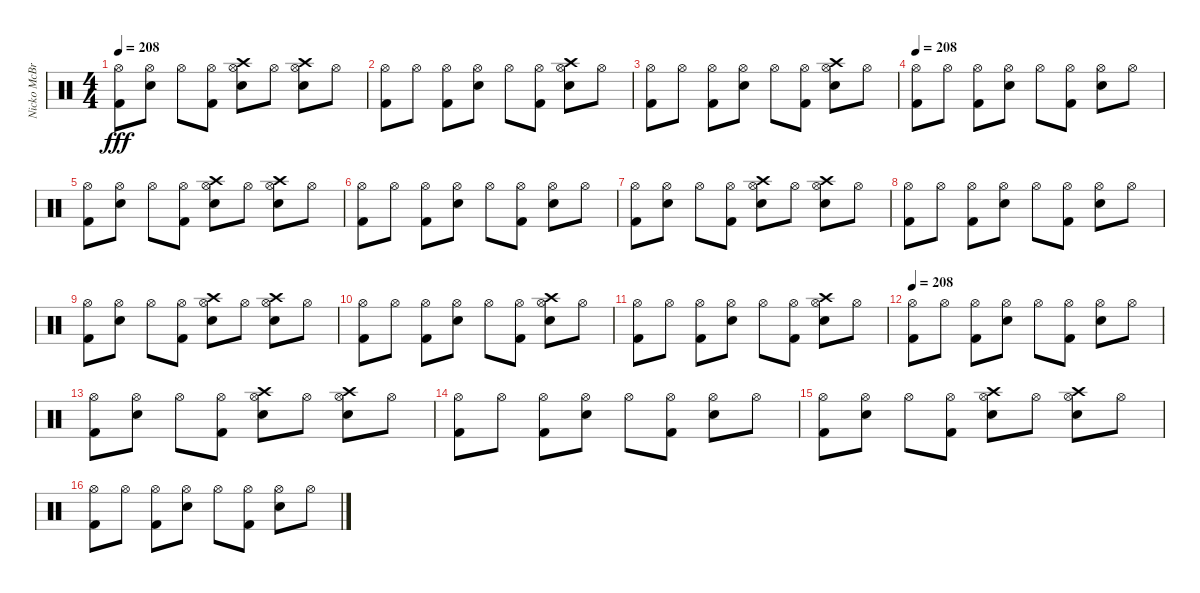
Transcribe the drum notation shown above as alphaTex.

\track ("Nicko McBrain" "Nicko McBr") {instrument percussion}
\staff {score}
\articulation defaults
\ts (4 4)
\tempo 208
\clef neutral
\ks c
("Hi-Hat (open)" "Kick (hit) 2").8{dy fff} ("Hi-Hat (open)" "Snare (hit) 2").8 "Hi-Hat (open)".8 ("Hi-Hat (open)" "Kick (hit) 2").8 ("Hi-Hat (open)" "Snare (hit) 2" "Crash high (hit)").8 "Hi-Hat (open)".8 ("Hi-Hat (open)" "Snare (hit) 2" "Crash high (hit)").8 "Hi-Hat (open)".8 |
("Hi-Hat (open)" "Kick (hit) 2").8 "Hi-Hat (open)".8 ("Hi-Hat (open)" "Kick (hit) 2").8 ("Hi-Hat (open)" "Snare (hit) 2").8 "Hi-Hat (open)".8 ("Hi-Hat (open)" "Kick (hit) 2").8 ("Hi-Hat (open)" "Snare (hit) 2" "Crash high (hit)").8 "Hi-Hat (open)".8 |
("Hi-Hat (open)" "Kick (hit) 2").8 "Hi-Hat (open)".8 ("Hi-Hat (open)" "Kick (hit) 2").8 ("Hi-Hat (open)" "Snare (hit) 2").8 "Hi-Hat (open)".8 ("Hi-Hat (open)" "Kick (hit) 2").8 ("Hi-Hat (open)" "Snare (hit) 2" "Crash high (hit)").8 "Hi-Hat (open)".8 |
\tempo 208
("Hi-Hat (open)" "Kick (hit) 2").8 "Hi-Hat (open)".8 ("Hi-Hat (open)" "Kick (hit) 2").8 ("Hi-Hat (open)" "Snare (hit) 2").8 "Hi-Hat (open)".8 ("Hi-Hat (open)" "Kick (hit) 2").8 ("Hi-Hat (open)" "Snare (hit) 2").8 "Hi-Hat (open)".8 |
("Hi-Hat (open)" "Kick (hit) 2").8 ("Hi-Hat (open)" "Snare (hit) 2").8 "Hi-Hat (open)".8 ("Hi-Hat (open)" "Kick (hit) 2").8 ("Hi-Hat (open)" "Snare (hit) 2" "Crash high (hit)").8 "Hi-Hat (open)".8 ("Hi-Hat (open)" "Snare (hit) 2" "Crash high (hit)").8 "Hi-Hat (open)".8 |
("Hi-Hat (open)" "Kick (hit) 2").8 "Hi-Hat (open)".8 ("Hi-Hat (open)" "Kick (hit) 2").8 ("Hi-Hat (open)" "Snare (hit) 2").8 "Hi-Hat (open)".8 ("Hi-Hat (open)" "Kick (hit) 2").8 ("Hi-Hat (open)" "Snare (hit) 2").8 "Hi-Hat (open)".8 |
("Hi-Hat (open)" "Kick (hit) 2").8 ("Hi-Hat (open)" "Snare (hit) 2").8 "Hi-Hat (open)".8 ("Hi-Hat (open)" "Kick (hit) 2").8 ("Hi-Hat (open)" "Snare (hit) 2" "Crash high (hit)").8 "Hi-Hat (open)".8 ("Hi-Hat (open)" "Snare (hit) 2" "Crash high (hit)").8 "Hi-Hat (open)".8 |
("Hi-Hat (open)" "Kick (hit) 2").8 "Hi-Hat (open)".8 ("Hi-Hat (open)" "Kick (hit) 2").8 ("Hi-Hat (open)" "Snare (hit) 2").8 "Hi-Hat (open)".8 ("Hi-Hat (open)" "Kick (hit) 2").8 ("Hi-Hat (open)" "Snare (hit) 2").8 "Hi-Hat (open)".8 |
("Hi-Hat (open)" "Kick (hit) 2").8 ("Hi-Hat (open)" "Snare (hit) 2").8 "Hi-Hat (open)".8 ("Hi-Hat (open)" "Kick (hit) 2").8 ("Hi-Hat (open)" "Snare (hit) 2" "Crash high (hit)").8 "Hi-Hat (open)".8 ("Hi-Hat (open)" "Snare (hit) 2" "Crash high (hit)").8 "Hi-Hat (open)".8 |
("Hi-Hat (open)" "Kick (hit) 2").8 "Hi-Hat (open)".8 ("Hi-Hat (open)" "Kick (hit) 2").8 ("Hi-Hat (open)" "Snare (hit) 2").8 "Hi-Hat (open)".8 ("Hi-Hat (open)" "Kick (hit) 2").8 ("Hi-Hat (open)" "Snare (hit) 2" "Crash high (hit)").8 "Hi-Hat (open)".8 |
("Hi-Hat (open)" "Kick (hit) 2").8 "Hi-Hat (open)".8 ("Hi-Hat (open)" "Kick (hit) 2").8 ("Hi-Hat (open)" "Snare (hit) 2").8 "Hi-Hat (open)".8 ("Hi-Hat (open)" "Kick (hit) 2").8 ("Hi-Hat (open)" "Snare (hit) 2" "Crash high (hit)").8 "Hi-Hat (open)".8 |
\tempo 208
("Hi-Hat (open)" "Kick (hit) 2").8 "Hi-Hat (open)".8 ("Hi-Hat (open)" "Kick (hit) 2").8 ("Hi-Hat (open)" "Snare (hit) 2").8 "Hi-Hat (open)".8 ("Hi-Hat (open)" "Kick (hit) 2").8 ("Hi-Hat (open)" "Snare (hit) 2").8 "Hi-Hat (open)".8 |
("Hi-Hat (open)" "Kick (hit) 2").8 ("Hi-Hat (open)" "Snare (hit) 2").8 "Hi-Hat (open)".8 ("Hi-Hat (open)" "Kick (hit) 2").8 ("Hi-Hat (open)" "Snare (hit) 2" "Crash high (hit)").8 "Hi-Hat (open)".8 ("Hi-Hat (open)" "Snare (hit) 2" "Crash high (hit)").8 "Hi-Hat (open)".8 |
("Hi-Hat (open)" "Kick (hit) 2").8 "Hi-Hat (open)".8 ("Hi-Hat (open)" "Kick (hit) 2").8 ("Hi-Hat (open)" "Snare (hit) 2").8 "Hi-Hat (open)".8 ("Hi-Hat (open)" "Kick (hit) 2").8 ("Hi-Hat (open)" "Snare (hit) 2").8 "Hi-Hat (open)".8 |
("Hi-Hat (open)" "Kick (hit) 2").8 ("Hi-Hat (open)" "Snare (hit) 2").8 "Hi-Hat (open)".8 ("Hi-Hat (open)" "Kick (hit) 2").8 ("Hi-Hat (open)" "Snare (hit) 2" "Crash high (hit)").8 "Hi-Hat (open)".8 ("Hi-Hat (open)" "Snare (hit) 2" "Crash high (hit)").8 "Hi-Hat (open)".8 |
("Hi-Hat (open)" "Kick (hit) 2").8 "Hi-Hat (open)".8 ("Hi-Hat (open)" "Kick (hit) 2").8 ("Hi-Hat (open)" "Snare (hit) 2").8 "Hi-Hat (open)".8 ("Hi-Hat (open)" "Kick (hit) 2").8 ("Hi-Hat (open)" "Snare (hit) 2").8 "Hi-Hat (open)".8
